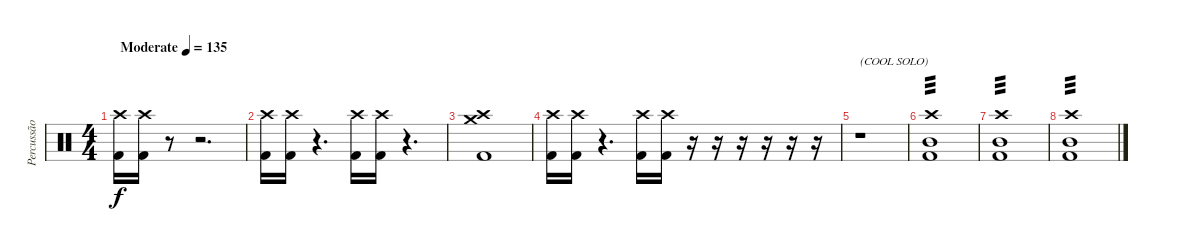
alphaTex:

\track ("Percussão" "Percussão") {instrument percussion}
\staff {score}
\articulation defaults
\ts (4 4)
\tempo (135 "Moderate")
\clef neutral
\ks c
("Kick (hit) 2" "Crash high (hit)").16{dy f} ("Kick (hit) 2" "Crash high (hit)").16 r.8 r.2{d} |
("Kick (hit) 2" "Crash high (hit)").16 ("Kick (hit) 2" "Crash high (hit)").16 r.4{d} ("Kick (hit) 2" "Crash high (hit)").16 ("Kick (hit) 2" "Crash high (hit)").16 r.4{d} |
("Kick (hit) 2" "Crash medium (hit)" "Crash high (hit)").1 |
("Kick (hit) 2" "Crash high (hit)").16 ("Kick (hit) 2" "Crash high (hit)").16 r.4{d} ("Kick (hit) 2" "Crash high (hit)").16 ("Kick (hit) 2" "Crash high (hit)").16 r.16 r.16 r.16 r.16 r.16 r.16 |
r.1{txt "(COOL SOLO)"} |
("Crash high (hit)" "Mid Tom (hit)" "Kick (hit) 2").1{tp 3} |
("Crash high (hit)" "Mid Tom (hit)" "Kick (hit) 2").1{tp 3} |
("Crash high (hit)" "Mid Tom (hit)" "Kick (hit) 2").1{tp 3}
